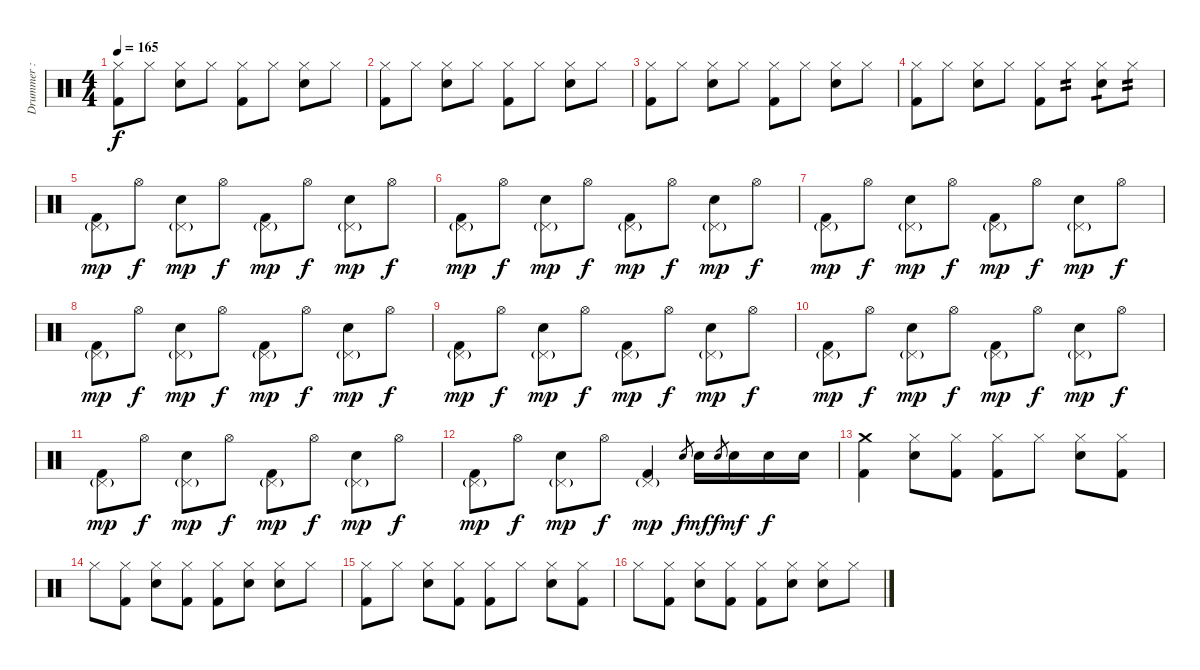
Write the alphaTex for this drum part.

\track ("Drummer : Tainaka Ritsu - Chan" "Drummer : ") {instrument percussion}
\staff {score}
\articulation defaults
\ts (4 4)
\tempo 165
\clef neutral
\ks c
("Hi-Hat (closed)" "Kick (hit) 2").8{dy f} "Hi-Hat (closed)".8 ("Hi-Hat (closed)" "Electric Snare (hit)").8 "Hi-Hat (closed)".8 ("Hi-Hat (closed)" "Kick (hit) 2").8 "Hi-Hat (closed)".8 ("Hi-Hat (closed)" "Electric Snare (hit)").8 "Hi-Hat (closed)".8 |
("Hi-Hat (closed)" "Kick (hit) 2").8 "Hi-Hat (closed)".8 ("Hi-Hat (closed)" "Electric Snare (hit)").8 "Hi-Hat (closed)".8 ("Hi-Hat (closed)" "Kick (hit) 2").8 "Hi-Hat (closed)".8 ("Hi-Hat (closed)" "Electric Snare (hit)").8 "Hi-Hat (closed)".8 |
("Hi-Hat (closed)" "Kick (hit) 2").8 "Hi-Hat (closed)".8 ("Hi-Hat (closed)" "Electric Snare (hit)").8 "Hi-Hat (closed)".8 ("Hi-Hat (closed)" "Kick (hit) 2").8 "Hi-Hat (closed)".8 ("Hi-Hat (closed)" "Electric Snare (hit)").8 "Hi-Hat (closed)".8 |
("Hi-Hat (closed)" "Kick (hit) 2").8 "Hi-Hat (closed)".8 ("Hi-Hat (closed)" "Electric Snare (hit)").8 "Hi-Hat (closed)".8 ("Hi-Hat (closed)" "Kick (hit) 2").8 "Hi-Hat (closed)".8{tp 2} ("Hi-Hat (closed)" "Electric Snare (hit)").8{tp 1} "Hi-Hat (closed)".8{tp 2} |
("Pedal Hi-Hat (hit)"{g} "Kick (hit) 2").8{dy mp} "Hi-Hat (open)".8{dy f} ("Pedal Hi-Hat (hit)"{g} "Electric Snare (hit)").8{dy mp} "Hi-Hat (open)".8{dy f} ("Pedal Hi-Hat (hit)"{g} "Kick (hit) 2").8{dy mp} "Hi-Hat (open)".8{dy f} ("Pedal Hi-Hat (hit)"{g} "Electric Snare (hit)").8{dy mp} "Hi-Hat (open)".8{dy f} |
("Pedal Hi-Hat (hit)"{g} "Kick (hit) 2").8{dy mp} "Hi-Hat (open)".8{dy f} ("Pedal Hi-Hat (hit)"{g} "Electric Snare (hit)").8{dy mp} "Hi-Hat (open)".8{dy f} ("Pedal Hi-Hat (hit)"{g} "Kick (hit) 2").8{dy mp} "Hi-Hat (open)".8{dy f} ("Pedal Hi-Hat (hit)"{g} "Electric Snare (hit)").8{dy mp} "Hi-Hat (open)".8{dy f} |
("Pedal Hi-Hat (hit)"{g} "Kick (hit) 2").8{dy mp} "Hi-Hat (open)".8{dy f} ("Pedal Hi-Hat (hit)"{g} "Electric Snare (hit)").8{dy mp} "Hi-Hat (open)".8{dy f} ("Pedal Hi-Hat (hit)"{g} "Kick (hit) 2").8{dy mp} "Hi-Hat (open)".8{dy f} ("Pedal Hi-Hat (hit)"{g} "Electric Snare (hit)").8{dy mp} "Hi-Hat (open)".8{dy f} |
("Pedal Hi-Hat (hit)"{g} "Kick (hit) 2").8{dy mp} "Hi-Hat (open)".8{dy f} ("Pedal Hi-Hat (hit)"{g} "Electric Snare (hit)").8{dy mp} "Hi-Hat (open)".8{dy f} ("Pedal Hi-Hat (hit)"{g} "Kick (hit) 2").8{dy mp} "Hi-Hat (open)".8{dy f} ("Pedal Hi-Hat (hit)"{g} "Electric Snare (hit)").8{dy mp} "Hi-Hat (open)".8{dy f} |
("Pedal Hi-Hat (hit)"{g} "Kick (hit) 2").8{dy mp} "Hi-Hat (open)".8{dy f} ("Pedal Hi-Hat (hit)"{g} "Electric Snare (hit)").8{dy mp} "Hi-Hat (open)".8{dy f} ("Pedal Hi-Hat (hit)"{g} "Kick (hit) 2").8{dy mp} "Hi-Hat (open)".8{dy f} ("Pedal Hi-Hat (hit)"{g} "Electric Snare (hit)").8{dy mp} "Hi-Hat (open)".8{dy f} |
("Pedal Hi-Hat (hit)"{g} "Kick (hit) 2").8{dy mp} "Hi-Hat (open)".8{dy f} ("Pedal Hi-Hat (hit)"{g} "Electric Snare (hit)").8{dy mp} "Hi-Hat (open)".8{dy f} ("Pedal Hi-Hat (hit)"{g} "Kick (hit) 2").8{dy mp} "Hi-Hat (open)".8{dy f} ("Pedal Hi-Hat (hit)"{g} "Electric Snare (hit)").8{dy mp} "Hi-Hat (open)".8{dy f} |
("Pedal Hi-Hat (hit)"{g} "Kick (hit) 2").8{dy mp} "Hi-Hat (open)".8{dy f} ("Pedal Hi-Hat (hit)"{g} "Electric Snare (hit)").8{dy mp} "Hi-Hat (open)".8{dy f} ("Pedal Hi-Hat (hit)"{g} "Kick (hit) 2").8{dy mp} "Hi-Hat (open)".8{dy f} ("Pedal Hi-Hat (hit)"{g} "Electric Snare (hit)").8{dy mp} "Hi-Hat (open)".8{dy f} |
("Pedal Hi-Hat (hit)"{g} "Kick (hit) 2").8{dy mp} "Hi-Hat (open)".8{dy f} ("Pedal Hi-Hat (hit)"{g} "Electric Snare (hit)").8{dy mp} "Hi-Hat (open)".8{dy f} ("Pedal Hi-Hat (hit)"{g} "Kick (hit) 2").4{dy mp} "Electric Snare (hit)".8{gr dy f} "Electric Snare (hit)".16{dy mf} "Electric Snare (hit)".8{gr dy f} "Electric Snare (hit)".16{dy mf} "Electric Snare (hit)".16{dy f} "Electric Snare (hit)".16 |
("Crash medium (hit)" "Kick (hit) 2").4 ("Hi-Hat (closed)" "Electric Snare (hit)").8 ("Hi-Hat (closed)" "Kick (hit) 2").8 ("Hi-Hat (closed)" "Kick (hit) 2").8 "Hi-Hat (closed)".8 ("Hi-Hat (closed)" "Electric Snare (hit)").8 ("Hi-Hat (closed)" "Kick (hit) 2").8 |
"Hi-Hat (closed)".8 ("Hi-Hat (closed)" "Kick (hit) 2").8 ("Hi-Hat (closed)" "Electric Snare (hit)").8 ("Hi-Hat (closed)" "Kick (hit) 2").8 ("Hi-Hat (closed)" "Kick (hit) 2").8 ("Hi-Hat (closed)" "Electric Snare (hit)").8 ("Hi-Hat (closed)" "Electric Snare (hit)").8 "Hi-Hat (closed)".8 |
("Hi-Hat (closed)" "Kick (hit) 2").8 "Hi-Hat (closed)".8 ("Hi-Hat (closed)" "Electric Snare (hit)").8 ("Hi-Hat (closed)" "Kick (hit) 2").8 ("Hi-Hat (closed)" "Kick (hit) 2").8 "Hi-Hat (closed)".8 ("Hi-Hat (closed)" "Electric Snare (hit)").8 ("Hi-Hat (closed)" "Kick (hit) 2").8 |
"Hi-Hat (closed)".8 ("Hi-Hat (closed)" "Kick (hit) 2").8 ("Hi-Hat (closed)" "Electric Snare (hit)").8 ("Hi-Hat (closed)" "Kick (hit) 2").8 ("Hi-Hat (closed)" "Kick (hit) 2").8 ("Hi-Hat (closed)" "Electric Snare (hit)").8 ("Hi-Hat (closed)" "Electric Snare (hit)").8 "Hi-Hat (closed)".8
